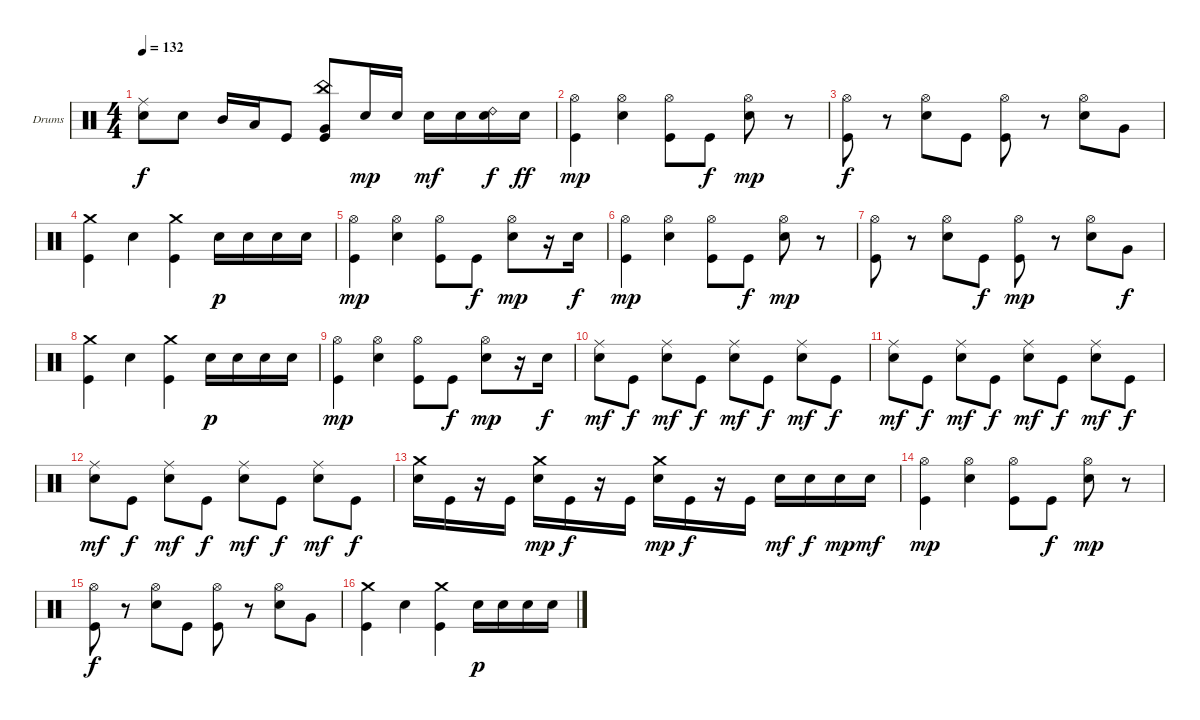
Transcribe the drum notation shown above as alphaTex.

\bracketExtendMode groupsimilarinstruments
\firstSystemTrackNameOrientation horizontal
\otherSystemsTrackNameOrientation horizontal
\track ("Drumkit" "Drums") {instrument percussion}
\staff {score}
\articulation defaults
\ts (4 4)
\tempo 132
\clef neutral
\ks c
("Ride (middle)" "Snare (hit) 2").8{dy f} "Snare (hit) 2".8 "Mid Tom (hit)".16 "Low Tom (hit)".16 "Kick (hit)".8 ("China (hit)" "Very Low Tom (hit)" "Kick (hit)").8 "Snare (hit) 2".16{dy mp} "Snare (hit) 2".16 "Snare (hit) 2".16{dy mf} "Snare (hit) 2".16 ("Ride (bell) 2" "Snare (hit) 2").16{dy f} "Snare (hit) 2".16{dy ff} |
("Hi-Hat (open)" "Kick (hit)").4{dy mp} ("Hi-Hat (open)" "Snare (hit) 2").4 ("Hi-Hat (open)" "Kick (hit)").8 "Kick (hit)".8{dy f} ("Hi-Hat (open)" "Snare (hit) 2").8{dy mp} r.8 |
("Hi-Hat (open)" "Kick (hit)").8{dy f} r.8 ("Hi-Hat (open)" "Snare (hit) 2").8 "Kick (hit)".8 ("Hi-Hat (open)" "Kick (hit)").8 r.8 ("Hi-Hat (open)" "Snare (hit) 2").8 "Very Low Tom (hit)".8 |
("Crash medium (hit)" "Kick (hit)").4 "Snare (hit) 2".4 ("Crash medium (hit)" "Kick (hit)").4 "Snare (hit) 2".16{dy p} "Snare (hit) 2".16 "Snare (hit) 2".16 "Snare (hit) 2".16 |
("Hi-Hat (open)" "Kick (hit)").4{dy mp} ("Hi-Hat (open)" "Snare (hit) 2").4 ("Hi-Hat (open)" "Kick (hit)").8 "Kick (hit)".8{dy f} ("Hi-Hat (open)" "Snare (hit) 2").8{dy mp} r.16 "Snare (hit) 2".16{dy f} |
("Hi-Hat (open)" "Kick (hit)").4{dy mp} ("Hi-Hat (open)" "Snare (hit) 2").4 ("Hi-Hat (open)" "Kick (hit)").8 "Kick (hit)".8{dy f} ("Hi-Hat (open)" "Snare (hit) 2").8{dy mp} r.8 |
("Hi-Hat (open)" "Kick (hit)").8 r.8 ("Hi-Hat (open)" "Snare (hit) 2").8 "Kick (hit)".8{dy f} ("Hi-Hat (open)" "Kick (hit)").8{dy mp} r.8 ("Hi-Hat (open)" "Snare (hit) 2").8 "Very Low Tom (hit)".8{dy f} |
("Crash medium (hit)" "Kick (hit)").4 "Snare (hit) 2".4 ("Crash medium (hit)" "Kick (hit)").4 "Snare (hit) 2".16{dy p} "Snare (hit) 2".16 "Snare (hit) 2".16 "Snare (hit) 2".16 |
("Hi-Hat (open)" "Kick (hit)").4{dy mp} ("Hi-Hat (open)" "Snare (hit) 2").4 ("Hi-Hat (open)" "Kick (hit)").8 "Kick (hit)".8{dy f} ("Hi-Hat (open)" "Snare (hit) 2").8{dy mp} r.16 "Snare (hit) 2".16{dy f} |
("Ride (middle)" "Snare (hit) 2").8{dy mf} "Kick (hit)".8{dy f} ("Ride (middle)" "Snare (hit) 2").8{dy mf} "Kick (hit)".8{dy f} ("Ride (middle)" "Snare (hit) 2").8{dy mf} "Kick (hit)".8{dy f} ("Ride (middle)" "Snare (hit) 2").8{dy mf} "Kick (hit)".8{dy f} |
("Ride (middle)" "Snare (hit) 2").8{dy mf} "Kick (hit)".8{dy f} ("Ride (middle)" "Snare (hit) 2").8{dy mf} "Kick (hit)".8{dy f} ("Ride (middle)" "Snare (hit) 2").8{dy mf} "Kick (hit)".8{dy f} ("Ride (middle)" "Snare (hit) 2").8{dy mf} "Kick (hit)".8{dy f} |
("Ride (middle)" "Snare (hit) 2").8{dy mf} "Kick (hit)".8{dy f} ("Ride (middle)" "Snare (hit) 2").8{dy mf} "Kick (hit)".8{dy f} ("Ride (middle)" "Snare (hit) 2").8{dy mf} "Kick (hit)".8{dy f} ("Ride (middle)" "Snare (hit) 2").8{dy mf} "Kick (hit)".8{dy f} |
("Crash medium (hit)" "Snare (hit) 2").16 "Kick (hit)".16 r.16 "Kick (hit)".16 ("Crash medium (hit)" "Snare (hit) 2").16{dy mp} "Kick (hit)".16{dy f} r.16 "Kick (hit)".16 ("Crash medium (hit)" "Snare (hit) 2").16{dy mp} "Kick (hit)".16{dy f} r.16 "Kick (hit)".16 "Snare (hit) 2".16{dy mf} "Snare (hit) 2".16{dy f} "Snare (hit) 2".16{dy mp} "Snare (hit) 2".16{dy mf} |
("Hi-Hat (open)" "Kick (hit)").4{dy mp} ("Hi-Hat (open)" "Snare (hit) 2").4 ("Hi-Hat (open)" "Kick (hit)").8 "Kick (hit)".8{dy f} ("Hi-Hat (open)" "Snare (hit) 2").8{dy mp} r.8 |
("Hi-Hat (open)" "Kick (hit)").8{dy f} r.8 ("Hi-Hat (open)" "Snare (hit) 2").8 "Kick (hit)".8 ("Hi-Hat (open)" "Kick (hit)").8 r.8 ("Hi-Hat (open)" "Snare (hit) 2").8 "Very Low Tom (hit)".8 |
("Crash medium (hit)" "Kick (hit)").4 "Snare (hit) 2".4 ("Crash medium (hit)" "Kick (hit)").4 "Snare (hit) 2".16{dy p} "Snare (hit) 2".16 "Snare (hit) 2".16 "Snare (hit) 2".16
